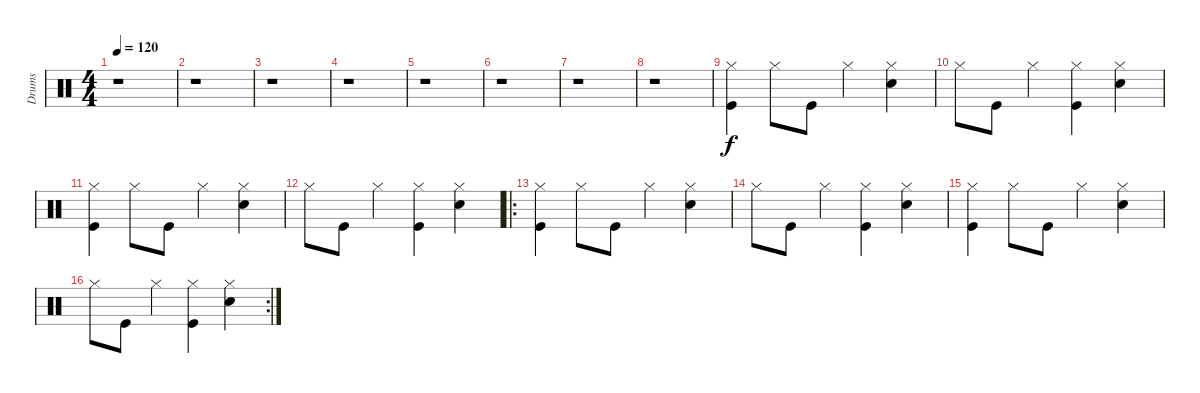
\track ("Drums" "Drums") {instrument percussion}
\staff {score}
\articulation defaults
\ts (4 4)
\tempo 120
\clef neutral
\ks c
r.1{dy f} |
r.1 |
r.1 |
r.1 |
r.1 |
r.1 |
r.1 |
r.1 |
("Hi-Hat (closed)" "Kick (hit)").4 "Hi-Hat (closed)".8 "Kick (hit)".8 "Hi-Hat (closed)".4 ("Hi-Hat (closed)" "Electric Snare (hit)").4 |
"Hi-Hat (closed)".8 "Kick (hit)".8 "Hi-Hat (closed)".4 ("Hi-Hat (closed)" "Kick (hit)").4 ("Hi-Hat (closed)" "Electric Snare (hit)").4 |
("Hi-Hat (closed)" "Kick (hit)").4 "Hi-Hat (closed)".8 "Kick (hit)".8 "Hi-Hat (closed)".4 ("Hi-Hat (closed)" "Electric Snare (hit)").4 |
"Hi-Hat (closed)".8 "Kick (hit)".8 "Hi-Hat (closed)".4 ("Hi-Hat (closed)" "Kick (hit)").4 ("Hi-Hat (closed)" "Electric Snare (hit)").4 |
\ro
("Hi-Hat (closed)" "Kick (hit)").4 "Hi-Hat (closed)".8 "Kick (hit)".8 "Hi-Hat (closed)".4 ("Hi-Hat (closed)" "Electric Snare (hit)").4 |
"Hi-Hat (closed)".8 "Kick (hit)".8 "Hi-Hat (closed)".4 ("Hi-Hat (closed)" "Kick (hit)").4 ("Hi-Hat (closed)" "Electric Snare (hit)").4 |
("Hi-Hat (closed)" "Kick (hit)").4 "Hi-Hat (closed)".8 "Kick (hit)".8 "Hi-Hat (closed)".4 ("Hi-Hat (closed)" "Electric Snare (hit)").4 |
\rc 2 "Hi-Hat (closed)".8 "Kick (hit)".8 "Hi-Hat (closed)".4
("Hi-Hat (closed)" "Kick (hit)").4 ("Hi-Hat (closed)" "Electric Snare (hit)").4
